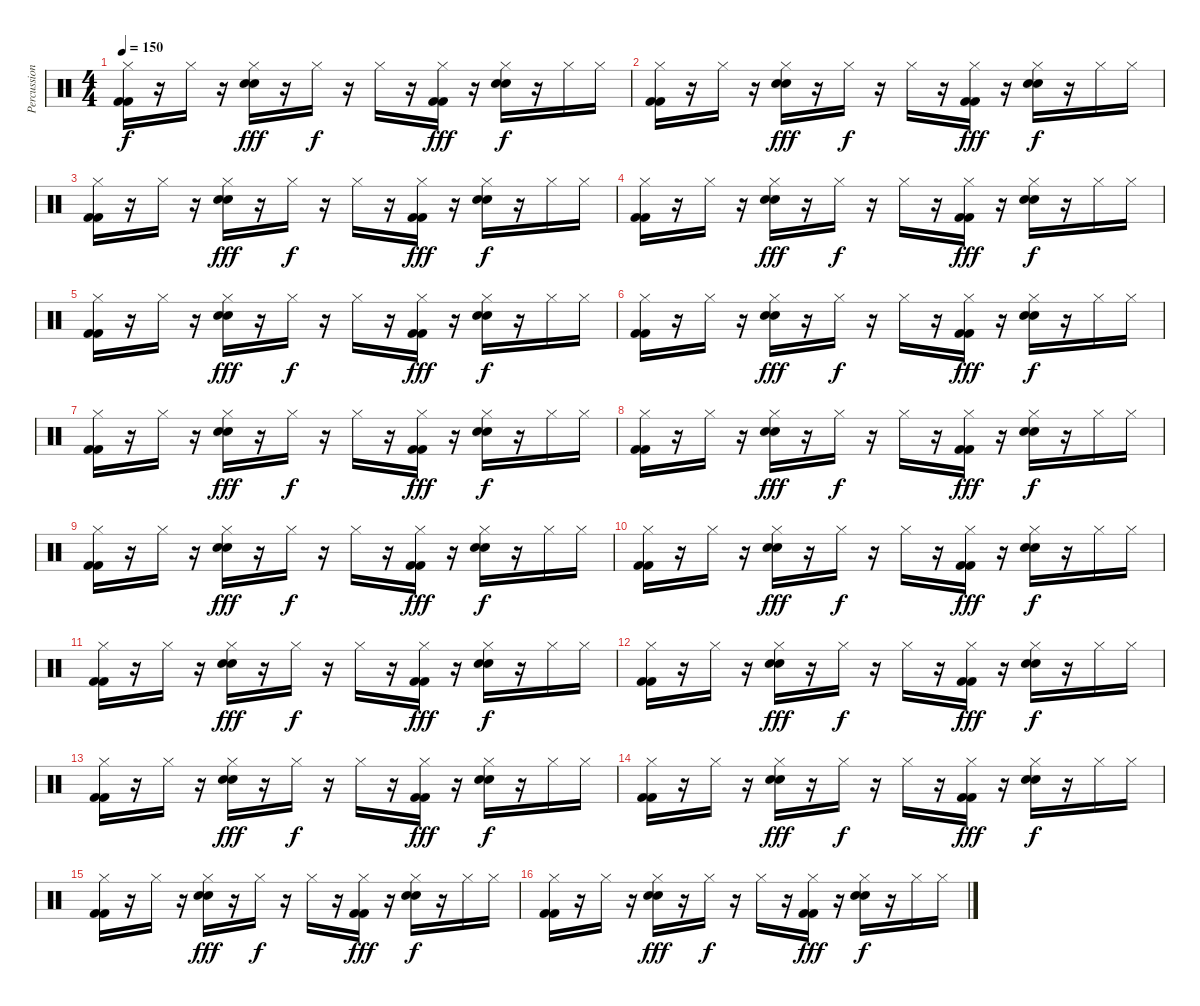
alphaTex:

\track ("Percussions" "Percussion") {instrument percussion}
\staff {score}
\articulation defaults
\ts (4 4)
\tempo 150
\clef neutral
\ks c
("Hi-Hat (closed)" "Kick (hit) 2" "Kick (hit) 2").16{dy f} r.16 "Hi-Hat (closed)".16 r.16 ("Hi-Hat (closed)" "Snare (hit) 2" "Electric Snare (hit)").16{dy fff} r.16 "Hi-Hat (closed)".16{dy f} r.16 "Hi-Hat (closed)".16 r.16 ("Hi-Hat (closed)" "Kick (hit) 2" "Kick (hit) 2").16{dy fff} r.16 ("Hi-Hat (closed)" "Snare (hit) 2" "Electric Snare (hit)").16{dy f} r.16 "Hi-Hat (closed)".16 "Hi-Hat (closed)".16 |
("Hi-Hat (closed)" "Kick (hit) 2" "Kick (hit) 2").16 r.16 "Hi-Hat (closed)".16 r.16 ("Hi-Hat (closed)" "Snare (hit) 2" "Electric Snare (hit)").16{dy fff} r.16 "Hi-Hat (closed)".16{dy f} r.16 "Hi-Hat (closed)".16 r.16 ("Hi-Hat (closed)" "Kick (hit) 2" "Kick (hit) 2").16{dy fff} r.16 ("Hi-Hat (closed)" "Snare (hit) 2" "Electric Snare (hit)").16{dy f} r.16 "Hi-Hat (closed)".16 "Hi-Hat (closed)".16 |
("Hi-Hat (closed)" "Kick (hit) 2" "Kick (hit) 2").16 r.16 "Hi-Hat (closed)".16 r.16 ("Hi-Hat (closed)" "Snare (hit) 2" "Electric Snare (hit)").16{dy fff} r.16 "Hi-Hat (closed)".16{dy f} r.16 "Hi-Hat (closed)".16 r.16 ("Hi-Hat (closed)" "Kick (hit) 2" "Kick (hit) 2").16{dy fff} r.16 ("Hi-Hat (closed)" "Snare (hit) 2" "Electric Snare (hit)").16{dy f} r.16 "Hi-Hat (closed)".16 "Hi-Hat (closed)".16 |
("Hi-Hat (closed)" "Kick (hit) 2" "Kick (hit) 2").16 r.16 "Hi-Hat (closed)".16 r.16 ("Hi-Hat (closed)" "Snare (hit) 2" "Electric Snare (hit)").16{dy fff} r.16 "Hi-Hat (closed)".16{dy f} r.16 "Hi-Hat (closed)".16 r.16 ("Hi-Hat (closed)" "Kick (hit) 2" "Kick (hit) 2").16{dy fff} r.16 ("Hi-Hat (closed)" "Snare (hit) 2" "Electric Snare (hit)").16{dy f} r.16 "Hi-Hat (closed)".16 "Hi-Hat (closed)".16 |
("Hi-Hat (closed)" "Kick (hit) 2" "Kick (hit) 2").16 r.16 "Hi-Hat (closed)".16 r.16 ("Hi-Hat (closed)" "Snare (hit) 2" "Electric Snare (hit)").16{dy fff} r.16 "Hi-Hat (closed)".16{dy f} r.16 "Hi-Hat (closed)".16 r.16 ("Hi-Hat (closed)" "Kick (hit) 2" "Kick (hit) 2").16{dy fff} r.16 ("Hi-Hat (closed)" "Snare (hit) 2" "Electric Snare (hit)").16{dy f} r.16 "Hi-Hat (closed)".16 "Hi-Hat (closed)".16 |
("Hi-Hat (closed)" "Kick (hit) 2" "Kick (hit) 2").16 r.16 "Hi-Hat (closed)".16 r.16 ("Hi-Hat (closed)" "Snare (hit) 2" "Electric Snare (hit)").16{dy fff} r.16 "Hi-Hat (closed)".16{dy f} r.16 "Hi-Hat (closed)".16 r.16 ("Hi-Hat (closed)" "Kick (hit) 2" "Kick (hit) 2").16{dy fff} r.16 ("Hi-Hat (closed)" "Snare (hit) 2" "Electric Snare (hit)").16{dy f} r.16 "Hi-Hat (closed)".16 "Hi-Hat (closed)".16 |
("Hi-Hat (closed)" "Kick (hit) 2" "Kick (hit) 2").16 r.16 "Hi-Hat (closed)".16 r.16 ("Hi-Hat (closed)" "Snare (hit) 2" "Electric Snare (hit)").16{dy fff} r.16 "Hi-Hat (closed)".16{dy f} r.16 "Hi-Hat (closed)".16 r.16 ("Hi-Hat (closed)" "Kick (hit) 2" "Kick (hit) 2").16{dy fff} r.16 ("Hi-Hat (closed)" "Snare (hit) 2" "Electric Snare (hit)").16{dy f} r.16 "Hi-Hat (closed)".16 "Hi-Hat (closed)".16 |
("Hi-Hat (closed)" "Kick (hit) 2" "Kick (hit) 2").16 r.16 "Hi-Hat (closed)".16 r.16 ("Hi-Hat (closed)" "Snare (hit) 2" "Electric Snare (hit)").16{dy fff} r.16 "Hi-Hat (closed)".16{dy f} r.16 "Hi-Hat (closed)".16 r.16 ("Hi-Hat (closed)" "Kick (hit) 2" "Kick (hit) 2").16{dy fff} r.16 ("Hi-Hat (closed)" "Snare (hit) 2" "Electric Snare (hit)").16{dy f} r.16 "Hi-Hat (closed)".16 "Hi-Hat (closed)".16 |
("Hi-Hat (closed)" "Kick (hit) 2" "Kick (hit) 2").16 r.16 "Hi-Hat (closed)".16 r.16 ("Hi-Hat (closed)" "Snare (hit) 2" "Electric Snare (hit)").16{dy fff} r.16 "Hi-Hat (closed)".16{dy f} r.16 "Hi-Hat (closed)".16 r.16 ("Hi-Hat (closed)" "Kick (hit) 2" "Kick (hit) 2").16{dy fff} r.16 ("Hi-Hat (closed)" "Snare (hit) 2" "Electric Snare (hit)").16{dy f} r.16 "Hi-Hat (closed)".16 "Hi-Hat (closed)".16 |
("Hi-Hat (closed)" "Kick (hit) 2" "Kick (hit) 2").16 r.16 "Hi-Hat (closed)".16 r.16 ("Hi-Hat (closed)" "Snare (hit) 2" "Electric Snare (hit)").16{dy fff} r.16 "Hi-Hat (closed)".16{dy f} r.16 "Hi-Hat (closed)".16 r.16 ("Hi-Hat (closed)" "Kick (hit) 2" "Kick (hit) 2").16{dy fff} r.16 ("Hi-Hat (closed)" "Snare (hit) 2" "Electric Snare (hit)").16{dy f} r.16 "Hi-Hat (closed)".16 "Hi-Hat (closed)".16 |
("Hi-Hat (closed)" "Kick (hit) 2" "Kick (hit) 2").16 r.16 "Hi-Hat (closed)".16 r.16 ("Hi-Hat (closed)" "Snare (hit) 2" "Electric Snare (hit)").16{dy fff} r.16 "Hi-Hat (closed)".16{dy f} r.16 "Hi-Hat (closed)".16 r.16 ("Hi-Hat (closed)" "Kick (hit) 2" "Kick (hit) 2").16{dy fff} r.16 ("Hi-Hat (closed)" "Snare (hit) 2" "Electric Snare (hit)").16{dy f} r.16 "Hi-Hat (closed)".16 "Hi-Hat (closed)".16 |
("Hi-Hat (closed)" "Kick (hit) 2" "Kick (hit) 2").16 r.16 "Hi-Hat (closed)".16 r.16 ("Hi-Hat (closed)" "Snare (hit) 2" "Electric Snare (hit)").16{dy fff} r.16 "Hi-Hat (closed)".16{dy f} r.16 "Hi-Hat (closed)".16 r.16 ("Hi-Hat (closed)" "Kick (hit) 2" "Kick (hit) 2").16{dy fff} r.16 ("Hi-Hat (closed)" "Snare (hit) 2" "Electric Snare (hit)").16{dy f} r.16 "Hi-Hat (closed)".16 "Hi-Hat (closed)".16 |
("Hi-Hat (closed)" "Kick (hit) 2" "Kick (hit) 2").16 r.16 "Hi-Hat (closed)".16 r.16 ("Hi-Hat (closed)" "Snare (hit) 2" "Electric Snare (hit)").16{dy fff} r.16 "Hi-Hat (closed)".16{dy f} r.16 "Hi-Hat (closed)".16 r.16 ("Hi-Hat (closed)" "Kick (hit) 2" "Kick (hit) 2").16{dy fff} r.16 ("Hi-Hat (closed)" "Snare (hit) 2" "Electric Snare (hit)").16{dy f} r.16 "Hi-Hat (closed)".16 "Hi-Hat (closed)".16 |
("Hi-Hat (closed)" "Kick (hit) 2" "Kick (hit) 2").16 r.16 "Hi-Hat (closed)".16 r.16 ("Hi-Hat (closed)" "Snare (hit) 2" "Electric Snare (hit)").16{dy fff} r.16 "Hi-Hat (closed)".16{dy f} r.16 "Hi-Hat (closed)".16 r.16 ("Hi-Hat (closed)" "Kick (hit) 2" "Kick (hit) 2").16{dy fff} r.16 ("Hi-Hat (closed)" "Snare (hit) 2" "Electric Snare (hit)").16{dy f} r.16 "Hi-Hat (closed)".16 "Hi-Hat (closed)".16 |
("Hi-Hat (closed)" "Kick (hit) 2" "Kick (hit) 2").16 r.16 "Hi-Hat (closed)".16 r.16 ("Hi-Hat (closed)" "Snare (hit) 2" "Electric Snare (hit)").16{dy fff} r.16 "Hi-Hat (closed)".16{dy f} r.16 "Hi-Hat (closed)".16 r.16 ("Hi-Hat (closed)" "Kick (hit) 2" "Kick (hit) 2").16{dy fff} r.16 ("Hi-Hat (closed)" "Snare (hit) 2" "Electric Snare (hit)").16{dy f} r.16 "Hi-Hat (closed)".16 "Hi-Hat (closed)".16 |
("Hi-Hat (closed)" "Kick (hit) 2" "Kick (hit) 2").16 r.16 "Hi-Hat (closed)".16 r.16 ("Hi-Hat (closed)" "Snare (hit) 2" "Electric Snare (hit)").16{dy fff} r.16 "Hi-Hat (closed)".16{dy f} r.16 "Hi-Hat (closed)".16 r.16 ("Hi-Hat (closed)" "Kick (hit) 2" "Kick (hit) 2").16{dy fff} r.16 ("Hi-Hat (closed)" "Snare (hit) 2" "Electric Snare (hit)").16{dy f} r.16 "Hi-Hat (closed)".16 "Hi-Hat (closed)".16
